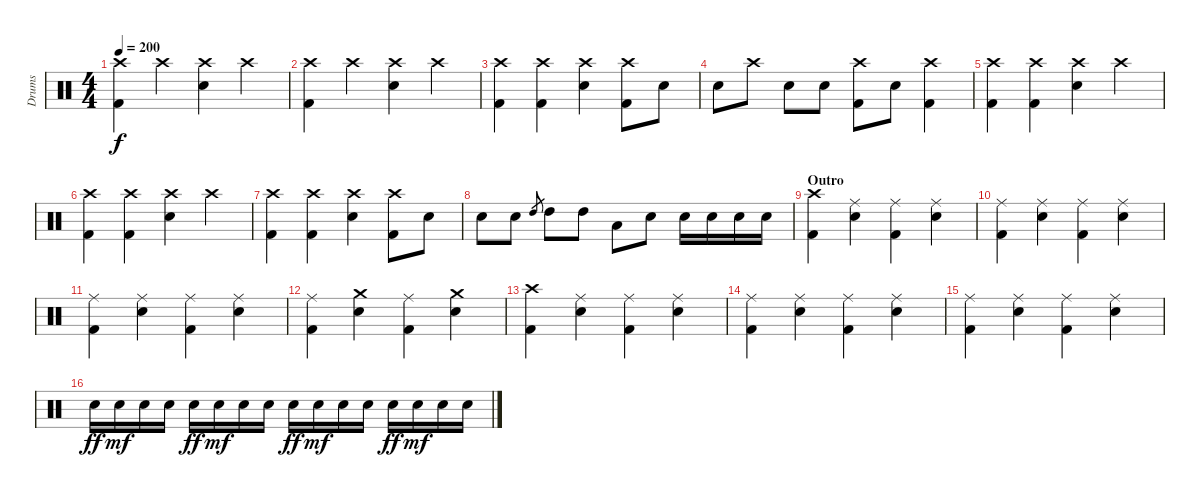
\track ("Drums" "Drums") {instrument percussion}
\staff {score}
\articulation defaults
\ts (4 4)
\tempo 200
\clef neutral
\ks c
("Crash high (hit)" "Kick (hit) 2").4{dy f} "Crash high (hit)".4 ("Crash high (hit)" "Electric Snare (hit)").4 "Crash high (hit)".4 |
("Crash high (hit)" "Kick (hit) 2").4 "Crash high (hit)".4 ("Crash high (hit)" "Electric Snare (hit)").4 "Crash high (hit)".4 |
("Crash high (hit)" "Kick (hit) 2").4 ("Crash high (hit)" "Kick (hit) 2").4 ("Crash high (hit)" "Electric Snare (hit)").4 ("Crash high (hit)" "Kick (hit) 2").8 "Electric Snare (hit)".8 |
"Electric Snare (hit)".8 "Crash high (hit)".8 "Electric Snare (hit)".8 "Electric Snare (hit)".8 ("Crash high (hit)" "Kick (hit) 2").8 "Electric Snare (hit)".8 ("Crash high (hit)" "Kick (hit) 2").4 |
("Crash high (hit)" "Kick (hit) 2").4 ("Crash high (hit)" "Kick (hit) 2").4 ("Crash high (hit)" "Electric Snare (hit)").4 "Crash high (hit)".4 |
("Crash high (hit)" "Kick (hit) 2").4 ("Crash high (hit)" "Kick (hit) 2").4 ("Crash high (hit)" "Electric Snare (hit)").4 "Crash high (hit)".4 |
("Crash high (hit)" "Kick (hit) 2").4 ("Crash high (hit)" "Kick (hit) 2").4 ("Crash high (hit)" "Electric Snare (hit)").4 ("Crash high (hit)" "Kick (hit) 2").8 "Electric Snare (hit)".8 |
"Electric Snare (hit)".8 "Electric Snare (hit)".8 "High Tom (hit)".8{gr} "High Tom (hit)".8 "High Tom (hit)".8 "Low Tom (hit)".8 "Electric Snare (hit)".8 "Electric Snare (hit)".16 "Electric Snare (hit)".16 "Electric Snare (hit)".16 "Electric Snare (hit)".16 |
\section ("" "Outro")
("Crash high (hit)" "Kick (hit) 2").4 ("Ride (middle)" "Electric Snare (hit)").4 ("Ride (middle)" "Kick (hit) 2").4 ("Ride (middle)" "Electric Snare (hit)").4 |
("Ride (middle)" "Kick (hit) 2").4 ("Ride (middle)" "Electric Snare (hit)").4 ("Ride (middle)" "Kick (hit) 2").4 ("Ride (middle)" "Electric Snare (hit)").4 |
("Ride (middle)" "Kick (hit) 2").4 ("Ride (middle)" "Electric Snare (hit)").4 ("Ride (middle)" "Kick (hit) 2").4 ("Ride (middle)" "Electric Snare (hit)").4 |
("Ride (middle)" "Kick (hit) 2").4 ("Crash medium (hit)" "Electric Snare (hit)").4 ("Ride (middle)" "Kick (hit) 2").4 ("Crash medium (hit)" "Electric Snare (hit)").4 |
("Crash high (hit)" "Kick (hit) 2").4 ("Ride (middle)" "Electric Snare (hit)").4 ("Ride (middle)" "Kick (hit) 2").4 ("Ride (middle)" "Electric Snare (hit)").4 |
("Ride (middle)" "Kick (hit) 2").4 ("Ride (middle)" "Electric Snare (hit)").4 ("Ride (middle)" "Kick (hit) 2").4 ("Ride (middle)" "Electric Snare (hit)").4 |
("Ride (middle)" "Kick (hit) 2").4 ("Ride (middle)" "Electric Snare (hit)").4 ("Ride (middle)" "Kick (hit) 2").4 ("Ride (middle)" "Electric Snare (hit)").4 |
"Electric Snare (hit)".16{dy ff} "Electric Snare (hit)".16{dy mf} "Electric Snare (hit)".16 "Electric Snare (hit)".16 "Electric Snare (hit)".16{dy ff} "Electric Snare (hit)".16{dy mf} "Electric Snare (hit)".16 "Electric Snare (hit)".16 "Electric Snare (hit)".16{dy ff} "Electric Snare (hit)".16{dy mf} "Electric Snare (hit)".16 "Electric Snare (hit)".16 "Electric Snare (hit)".16{dy ff} "Electric Snare (hit)".16{dy mf} "Electric Snare (hit)".16 "Electric Snare (hit)".16
